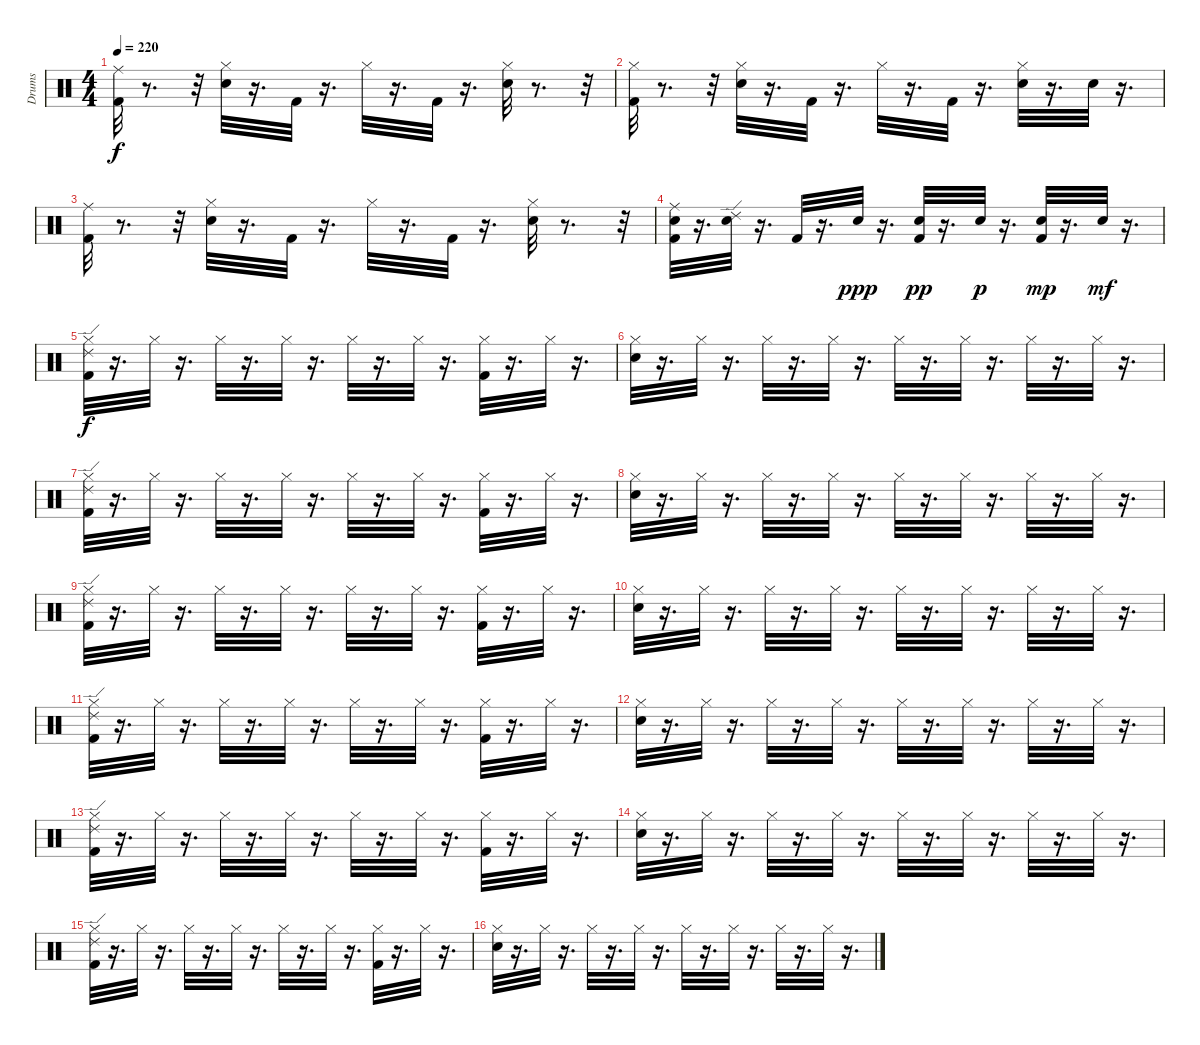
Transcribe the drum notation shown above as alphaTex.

\track ("Drums" "Drums") {instrument percussion}
\staff {score}
\articulation defaults
\ts (4 4)
\tempo 220
\clef neutral
\ks c
("Ride (middle)" "Kick (hit) 2").32{dy f} r.8{d} r.32 ("Hi-Hat (closed)" "Snare (hit) 2").32 r.16{d} "Kick (hit) 2".32 r.16{d} "Hi-Hat (closed)".32 r.16{d} "Kick (hit) 2".32 r.16{d} ("Hi-Hat (closed)" "Snare (hit) 2").32 r.8{d} r.32 |
("Kick (hit) 2" "Hi-Hat (closed)").32 r.8{d} r.32 ("Snare (hit) 2" "Hi-Hat (closed)").32 r.16{d} "Kick (hit) 2".32 r.16{d} "Hi-Hat (closed)".32 r.16{d} "Kick (hit) 2".32 r.16{d} ("Snare (hit) 2" "Hi-Hat (closed)").32 r.16{d} "Snare (hit) 2".32 r.16{d} |
("Ride (middle)" "Kick (hit) 2").32 r.8{d} r.32 ("Hi-Hat (closed)" "Snare (hit) 2").32 r.16{d} "Kick (hit) 2".32 r.16{d} "Hi-Hat (closed)".32 r.16{d} "Kick (hit) 2".32 r.16{d} ("Hi-Hat (closed)" "Snare (hit) 2").32 r.8{d} r.32 |
("Snare (hit) 2" "Ride (middle)" "Kick (hit) 2").32 r.16{d} ("Ride (edge) 2" "Snare (hit) 2").32 r.16{d} "Kick (hit) 2".32 r.16{d} "Snare (hit) 2".32{dy ppp} r.16{d} ("Kick (hit) 2" "Snare (hit) 2").32{dy pp} r.16{d} "Snare (hit) 2".32{dy p} r.16{d} ("Kick (hit) 2" "Snare (hit) 2").32{dy mp} r.16{d} "Snare (hit) 2".32{dy mf} r.16{d} |
("Hi-Hat (closed)" "Kick (hit) 2" "Ride (edge) 2").32{dy f} r.16{d} "Hi-Hat (closed)".32 r.16{d} "Hi-Hat (closed)".32 r.16{d} "Hi-Hat (closed)".32 r.16{d} "Hi-Hat (closed)".32 r.16{d} "Hi-Hat (closed)".32 r.16{d} ("Kick (hit) 2" "Hi-Hat (closed)").32 r.16{d} "Hi-Hat (closed)".32 r.16{d} |
("Hi-Hat (closed)" "Snare (hit) 2").32 r.16{d} "Hi-Hat (closed)".32 r.16{d} "Hi-Hat (closed)".32 r.16{d} "Hi-Hat (closed)".32 r.16{d} "Hi-Hat (closed)".32 r.16{d} "Hi-Hat (closed)".32 r.16{d} "Hi-Hat (closed)".32 r.16{d} "Hi-Hat (closed)".32 r.16{d} |
("Hi-Hat (closed)" "Kick (hit) 2" "Ride (edge) 2").32 r.16{d} "Hi-Hat (closed)".32 r.16{d} "Hi-Hat (closed)".32 r.16{d} "Hi-Hat (closed)".32 r.16{d} "Hi-Hat (closed)".32 r.16{d} "Hi-Hat (closed)".32 r.16{d} ("Kick (hit) 2" "Hi-Hat (closed)").32 r.16{d} "Hi-Hat (closed)".32 r.16{d} |
("Hi-Hat (closed)" "Snare (hit) 2").32 r.16{d} "Hi-Hat (closed)".32 r.16{d} "Hi-Hat (closed)".32 r.16{d} "Hi-Hat (closed)".32 r.16{d} "Hi-Hat (closed)".32 r.16{d} "Hi-Hat (closed)".32 r.16{d} "Hi-Hat (closed)".32 r.16{d} "Hi-Hat (closed)".32 r.16{d} |
("Hi-Hat (closed)" "Kick (hit) 2" "Ride (edge) 2").32 r.16{d} "Hi-Hat (closed)".32 r.16{d} "Hi-Hat (closed)".32 r.16{d} "Hi-Hat (closed)".32 r.16{d} "Hi-Hat (closed)".32 r.16{d} "Hi-Hat (closed)".32 r.16{d} ("Kick (hit) 2" "Hi-Hat (closed)").32 r.16{d} "Hi-Hat (closed)".32 r.16{d} |
("Hi-Hat (closed)" "Snare (hit) 2").32 r.16{d} "Hi-Hat (closed)".32 r.16{d} "Hi-Hat (closed)".32 r.16{d} "Hi-Hat (closed)".32 r.16{d} "Hi-Hat (closed)".32 r.16{d} "Hi-Hat (closed)".32 r.16{d} "Hi-Hat (closed)".32 r.16{d} "Hi-Hat (closed)".32 r.16{d} |
("Hi-Hat (closed)" "Kick (hit) 2" "Ride (edge) 2").32 r.16{d} "Hi-Hat (closed)".32 r.16{d} "Hi-Hat (closed)".32 r.16{d} "Hi-Hat (closed)".32 r.16{d} "Hi-Hat (closed)".32 r.16{d} "Hi-Hat (closed)".32 r.16{d} ("Kick (hit) 2" "Hi-Hat (closed)").32 r.16{d} "Hi-Hat (closed)".32 r.16{d} |
("Hi-Hat (closed)" "Snare (hit) 2").32 r.16{d} "Hi-Hat (closed)".32 r.16{d} "Hi-Hat (closed)".32 r.16{d} "Hi-Hat (closed)".32 r.16{d} "Hi-Hat (closed)".32 r.16{d} "Hi-Hat (closed)".32 r.16{d} "Hi-Hat (closed)".32 r.16{d} "Hi-Hat (closed)".32 r.16{d} |
("Hi-Hat (closed)" "Kick (hit) 2" "Ride (edge) 2").32 r.16{d} "Hi-Hat (closed)".32 r.16{d} "Hi-Hat (closed)".32 r.16{d} "Hi-Hat (closed)".32 r.16{d} "Hi-Hat (closed)".32 r.16{d} "Hi-Hat (closed)".32 r.16{d} ("Kick (hit) 2" "Hi-Hat (closed)").32 r.16{d} "Hi-Hat (closed)".32 r.16{d} |
("Hi-Hat (closed)" "Snare (hit) 2").32 r.16{d} "Hi-Hat (closed)".32 r.16{d} "Hi-Hat (closed)".32 r.16{d} "Hi-Hat (closed)".32 r.16{d} "Hi-Hat (closed)".32 r.16{d} "Hi-Hat (closed)".32 r.16{d} "Hi-Hat (closed)".32 r.16{d} "Hi-Hat (closed)".32 r.16{d} |
("Hi-Hat (closed)" "Kick (hit) 2" "Ride (edge) 2").32 r.16{d} "Hi-Hat (closed)".32 r.16{d} "Hi-Hat (closed)".32 r.16{d} "Hi-Hat (closed)".32 r.16{d} "Hi-Hat (closed)".32 r.16{d} "Hi-Hat (closed)".32 r.16{d} ("Kick (hit) 2" "Hi-Hat (closed)").32 r.16{d} "Hi-Hat (closed)".32 r.16{d} |
("Hi-Hat (closed)" "Snare (hit) 2").32 r.16{d} "Hi-Hat (closed)".32 r.16{d} "Hi-Hat (closed)".32 r.16{d} "Hi-Hat (closed)".32 r.16{d} "Hi-Hat (closed)".32 r.16{d} "Hi-Hat (closed)".32 r.16{d} "Hi-Hat (closed)".32 r.16{d} "Hi-Hat (closed)".32 r.16{d}
